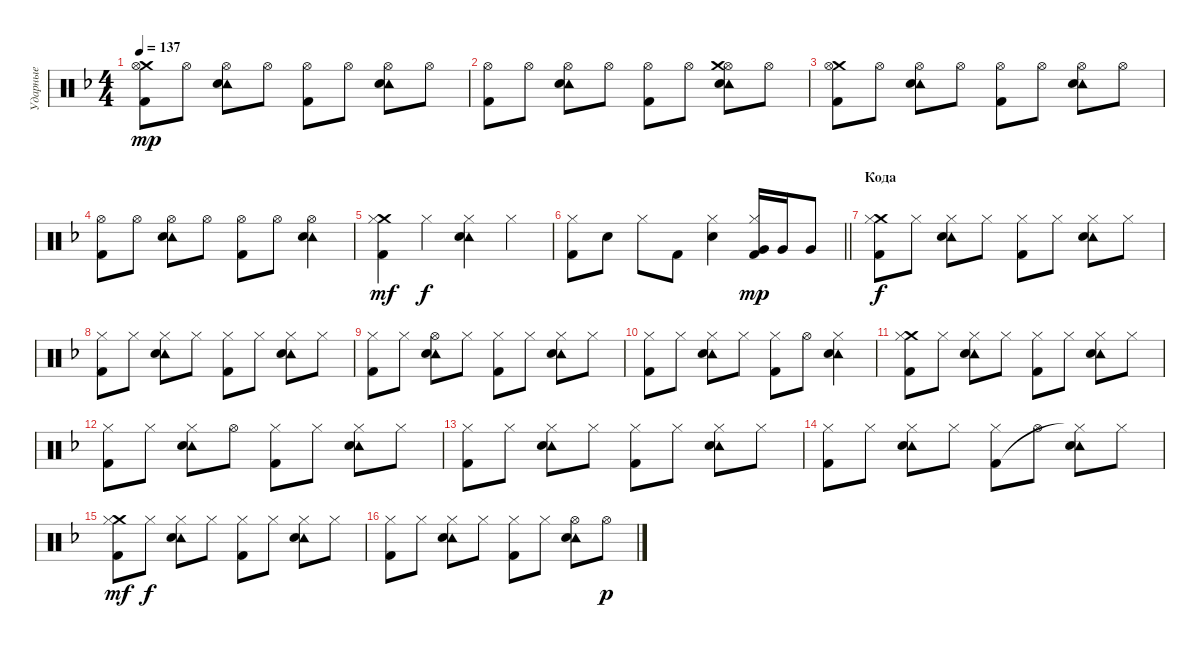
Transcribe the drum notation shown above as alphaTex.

\track ("Ударные" "Ударные") {instrument percussion}
\staff {score}
\articulation defaults
\ts (4 4)
\tempo 137
\clef neutral
\ks dminor
("Crash medium (hit)" "Hi-Hat (open)" "Kick (hit) 2").8{dy mp} "Hi-Hat (open)".8 ("Tambourine (hit)" "Hi-Hat (open)" "Electric Snare (hit)").8 "Hi-Hat (open)".8 ("Hi-Hat (open)" "Kick (hit) 2").8 "Hi-Hat (open)".8 ("Tambourine (hit)" "Hi-Hat (open)" "Electric Snare (hit)").8 "Hi-Hat (open)".8 |
("Hi-Hat (open)" "Kick (hit) 2").8 "Hi-Hat (open)".8 ("Tambourine (hit)" "Hi-Hat (open)" "Electric Snare (hit)").8 "Hi-Hat (open)".8 ("Hi-Hat (open)" "Kick (hit) 2").8 "Hi-Hat (open)".8 ("Tambourine (hit)" "Hi-Hat (open)" "Crash medium (hit)" "Electric Snare (hit)").8 "Hi-Hat (open)".8 |
("Crash medium (hit)" "Hi-Hat (open)" "Kick (hit) 2").8 "Hi-Hat (open)".8 ("Tambourine (hit)" "Hi-Hat (open)" "Electric Snare (hit)").8 "Hi-Hat (open)".8 ("Hi-Hat (open)" "Kick (hit) 2").8 "Hi-Hat (open)".8 ("Tambourine (hit)" "Hi-Hat (open)" "Electric Snare (hit)").8 "Hi-Hat (open)".8 |
("Hi-Hat (open)" "Kick (hit) 2").8 "Hi-Hat (open)".8 ("Tambourine (hit)" "Hi-Hat (open)" "Electric Snare (hit)").8 "Hi-Hat (open)".8 ("Hi-Hat (open)" "Kick (hit) 2").8 "Hi-Hat (open)".8 ("Tambourine (hit)" "Hi-Hat (open)" "Electric Snare (hit)").4 |
("Crash medium (hit)" "Hi-Hat (closed)" "Kick (hit) 2").4{dy mf} "Hi-Hat (closed)".4{dy f} ("Tambourine (hit)" "Hi-Hat (closed)" "Electric Snare (hit)").4 "Hi-Hat (closed)".4 |
\barLineRight lightlight
("Hi-Hat (closed)" "Kick (hit) 2").8 "Electric Snare (hit)".8 "Hi-Hat (closed)".8 "Kick (hit) 2".8 ("Hi-Hat (closed)" "Electric Snare (hit)").4 ("Hi-Hat (closed)" "Very Low Tom (hit)" "Kick (hit) 2").16{dy mp} "Very Low Tom (hit)".16 "Very Low Tom (hit)".8 |
\section ("" "Кода")
("Crash medium (hit)" "Hi-Hat (closed)" "Kick (hit) 2").8{dy f volume 11} "Hi-Hat (closed)".8 ("Tambourine (hit)" "Hi-Hat (closed)" "Electric Snare (hit)").8 "Hi-Hat (closed)".8 ("Hi-Hat (closed)" "Kick (hit) 2").8 "Hi-Hat (closed)".8 ("Tambourine (hit)" "Hi-Hat (closed)" "Electric Snare (hit)").8 "Hi-Hat (closed)".8 |
("Hi-Hat (closed)" "Kick (hit) 2").8 "Hi-Hat (closed)".8 ("Tambourine (hit)" "Hi-Hat (closed)" "Electric Snare (hit)").8 "Hi-Hat (closed)".8 ("Hi-Hat (closed)" "Kick (hit) 2").8 "Hi-Hat (closed)".8 ("Tambourine (hit)" "Hi-Hat (closed)" "Electric Snare (hit)").8 "Hi-Hat (closed)".8 |
("Hi-Hat (closed)" "Kick (hit) 2").8 "Hi-Hat (closed)".8 ("Tambourine (hit)" "Hi-Hat (open)" "Electric Snare (hit)").8 "Hi-Hat (closed)".8 ("Hi-Hat (closed)" "Kick (hit) 2").8 "Hi-Hat (closed)".8 ("Tambourine (hit)" "Hi-Hat (closed)" "Electric Snare (hit)").8 "Hi-Hat (closed)".8 |
("Hi-Hat (closed)" "Kick (hit) 2").8 "Hi-Hat (closed)".8 ("Tambourine (hit)" "Hi-Hat (closed)" "Electric Snare (hit)").8 "Hi-Hat (closed)".8 ("Hi-Hat (closed)" "Kick (hit) 2").8 "Hi-Hat (open)".8 ("Tambourine (hit)" "Hi-Hat (closed)" "Electric Snare (hit)").4 |
("Crash medium (hit)" "Hi-Hat (closed)" "Kick (hit) 2").8 "Hi-Hat (closed)".8 ("Tambourine (hit)" "Hi-Hat (closed)" "Electric Snare (hit)").8 "Hi-Hat (closed)".8 ("Hi-Hat (closed)" "Kick (hit) 2").8 "Hi-Hat (closed)".8 ("Tambourine (hit)" "Hi-Hat (closed)" "Electric Snare (hit)").8 "Hi-Hat (closed)".8 |
("Hi-Hat (closed)" "Kick (hit) 2").8 "Hi-Hat (closed)".8 ("Tambourine (hit)" "Hi-Hat (closed)" "Electric Snare (hit)").8 "Hi-Hat (open)".8 ("Hi-Hat (closed)" "Kick (hit) 2").8 "Hi-Hat (closed)".8 ("Tambourine (hit)" "Hi-Hat (closed)" "Electric Snare (hit)").8 "Hi-Hat (closed)".8 |
("Hi-Hat (closed)" "Kick (hit) 2").8 "Hi-Hat (closed)".8 ("Tambourine (hit)" "Hi-Hat (closed)" "Electric Snare (hit)").8 "Hi-Hat (closed)".8 ("Hi-Hat (closed)" "Kick (hit) 2").8 "Hi-Hat (closed)".8 ("Tambourine (hit)" "Hi-Hat (closed)" "Electric Snare (hit)").8 "Hi-Hat (closed)".8 |
("Hi-Hat (closed)" "Kick (hit) 2").8 "Hi-Hat (closed)".8 ("Tambourine (hit)" "Hi-Hat (closed)" "Electric Snare (hit)").8 "Hi-Hat (closed)".8 ("Hi-Hat (closed)" "Kick (hit) 2").8 "Hi-Hat (open)".8 ("Tambourine (hit)" "Hi-Hat (closed)"{t} "Electric Snare (hit)").8 "Hi-Hat (closed)".8 |
("Crash medium (hit)" "Hi-Hat (closed)" "Kick (hit) 2").8{dy mf} "Hi-Hat (closed)".8{dy f} ("Tambourine (hit)" "Hi-Hat (closed)" "Electric Snare (hit)").8 "Hi-Hat (closed)".8 ("Hi-Hat (closed)" "Kick (hit) 2").8 "Hi-Hat (closed)".8 ("Tambourine (hit)" "Hi-Hat (closed)" "Electric Snare (hit)").8 "Hi-Hat (closed)".8 |
("Hi-Hat (closed)" "Kick (hit) 2").8 "Hi-Hat (closed)".8 ("Tambourine (hit)" "Hi-Hat (closed)" "Electric Snare (hit)").8 "Hi-Hat (closed)".8 ("Hi-Hat (closed)" "Kick (hit) 2").8 "Hi-Hat (closed)".8 ("Tambourine (hit)" "Hi-Hat (open)" "Electric Snare (hit)").8 "Hi-Hat (open)".8{dy p}
